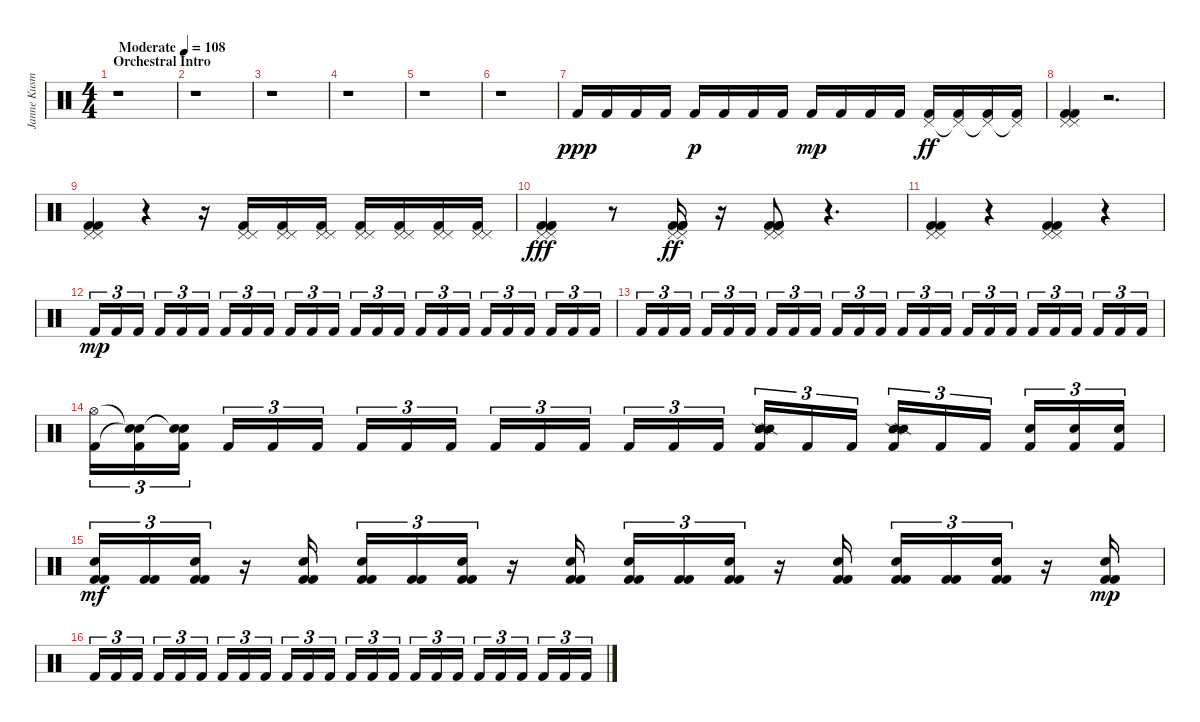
\track ("Janne Kusmin" "Janne Kusm") {instrument percussion}
\staff {score}
\articulation defaults
\ts (4 4)
\section ("" "Orchestral Intro")
\tempo (108 "Moderate")
\clef neutral
\ks c
r.1{dy ppp} |
r.1 |
r.1 |
r.1 |
r.1 |
r.1 |
"Kick (hit) 2".16 "Kick (hit) 2".16 "Kick (hit) 2".16 "Kick (hit) 2".16 "Kick (hit) 2".16{dy p} "Kick (hit) 2".16 "Kick (hit) 2".16 "Kick (hit) 2".16 "Kick (hit) 2".16{dy mp} "Kick (hit) 2".16 "Kick (hit) 2".16 "Kick (hit) 2".16 ("Pedal Hi-Hat (hit)" "Kick (hit) 2").16{dy ff} ("Pedal Hi-Hat (hit)"{t} "Kick (hit) 2").16 ("Pedal Hi-Hat (hit)"{t} "Kick (hit) 2").16 ("Pedal Hi-Hat (hit)"{t} "Kick (hit) 2").16 |
("Pedal Hi-Hat (hit)" "Pedal Hi-Hat (hit)" "Kick (hit) 2" "Kick (hit) 2").4 r.2{d} |
("Pedal Hi-Hat (hit)" "Pedal Hi-Hat (hit)" "Kick (hit) 2" "Kick (hit) 2").4 r.4 r.16 ("Pedal Hi-Hat (hit)" "Pedal Hi-Hat (hit)" "Kick (hit) 2").16 ("Pedal Hi-Hat (hit)" "Pedal Hi-Hat (hit)" "Kick (hit) 2").16 ("Pedal Hi-Hat (hit)" "Pedal Hi-Hat (hit)" "Kick (hit) 2").16 ("Pedal Hi-Hat (hit)" "Pedal Hi-Hat (hit)" "Kick (hit) 2").16 ("Pedal Hi-Hat (hit)" "Pedal Hi-Hat (hit)" "Kick (hit) 2").16 ("Pedal Hi-Hat (hit)" "Pedal Hi-Hat (hit)" "Kick (hit) 2").16 ("Pedal Hi-Hat (hit)" "Pedal Hi-Hat (hit)" "Kick (hit) 2").16 |
("Pedal Hi-Hat (hit)" "Pedal Hi-Hat (hit)" "Kick (hit) 2" "Kick (hit) 2" "Kick (hit) 2").4{dy fff} r.8 ("Pedal Hi-Hat (hit)" "Pedal Hi-Hat (hit)" "Kick (hit) 2" "Kick (hit) 2" "Kick (hit) 2").16{dy ff} r.16 ("Pedal Hi-Hat (hit)" "Pedal Hi-Hat (hit)" "Kick (hit) 2" "Kick (hit) 2" "Kick (hit) 2").8 r.4{d} |
("Pedal Hi-Hat (hit)" "Pedal Hi-Hat (hit)" "Kick (hit) 2" "Kick (hit) 2").4 r.4 ("Pedal Hi-Hat (hit)" "Pedal Hi-Hat (hit)" "Kick (hit) 2" "Kick (hit) 2").4 r.4 |
"Kick (hit) 2".16{tu (3 2) dy mp} "Kick (hit) 2".16{tu (3 2)} "Kick (hit) 2".16{tu (3 2) beam splitsecondary} "Kick (hit) 2".16{tu (3 2)} "Kick (hit) 2".16{tu (3 2)} "Kick (hit) 2".16{tu (3 2)} "Kick (hit) 2".16{tu (3 2)} "Kick (hit) 2".16{tu (3 2)} "Kick (hit) 2".16{tu (3 2) beam splitsecondary} "Kick (hit) 2".16{tu (3 2)} "Kick (hit) 2".16{tu (3 2)} "Kick (hit) 2".16{tu (3 2)} "Kick (hit) 2".16{tu (3 2)} "Kick (hit) 2".16{tu (3 2)} "Kick (hit) 2".16{tu (3 2) beam splitsecondary} "Kick (hit) 2".16{tu (3 2)} "Kick (hit) 2".16{tu (3 2)} "Kick (hit) 2".16{tu (3 2)} "Kick (hit) 2".16{tu (3 2)} "Kick (hit) 2".16{tu (3 2)} "Kick (hit) 2".16{tu (3 2) beam splitsecondary} "Kick (hit) 2".16{tu (3 2)} "Kick (hit) 2".16{tu (3 2)} "Kick (hit) 2".16{tu (3 2)} |
"Kick (hit) 2".16{tu (3 2)} "Kick (hit) 2".16{tu (3 2)} "Kick (hit) 2".16{tu (3 2) beam splitsecondary} "Kick (hit) 2".16{tu (3 2)} "Kick (hit) 2".16{tu (3 2)} "Kick (hit) 2".16{tu (3 2)} "Kick (hit) 2".16{tu (3 2)} "Kick (hit) 2".16{tu (3 2)} "Kick (hit) 2".16{tu (3 2) beam splitsecondary} "Kick (hit) 2".16{tu (3 2)} "Kick (hit) 2".16{tu (3 2)} "Kick (hit) 2".16{tu (3 2)} "Kick (hit) 2".16{tu (3 2)} "Kick (hit) 2".16{tu (3 2)} "Kick (hit) 2".16{tu (3 2) beam splitsecondary} "Kick (hit) 2".16{tu (3 2)} "Kick (hit) 2".16{tu (3 2)} "Kick (hit) 2".16{tu (3 2)} "Kick (hit) 2".16{tu (3 2)} "Kick (hit) 2".16{tu (3 2)} "Kick (hit) 2".16{tu (3 2) beam splitsecondary} "Kick (hit) 2".16{tu (3 2)} "Kick (hit) 2".16{tu (3 2)} "Kick (hit) 2".16{tu (3 2)} |
("Hi-Hat (open)" "Kick (hit) 2").16{tu (3 2)} ("Snare (hit)"{t} "Snare (hit)"{t} "Kick (hit) 2").16{tu (3 2)} ("Snare (hit)"{t} "Snare (hit)"{t} "Kick (hit) 2").16{tu (3 2) beam splitsecondary} "Kick (hit) 2".16{tu (3 2)} "Kick (hit) 2".16{tu (3 2)} "Kick (hit) 2".16{tu (3 2)} "Kick (hit) 2".16{tu (3 2)} "Kick (hit) 2".16{tu (3 2)} "Kick (hit) 2".16{tu (3 2) beam splitsecondary} "Kick (hit) 2".16{tu (3 2)} "Kick (hit) 2".16{tu (3 2)} "Kick (hit) 2".16{tu (3 2)} "Kick (hit) 2".16{tu (3 2)} "Kick (hit) 2".16{tu (3 2)} "Kick (hit) 2".16{tu (3 2) beam splitsecondary} ("Snare (side stick) 2" "Snare (side stick) 2" "Kick (hit) 2").16{tu (3 2)} "Kick (hit) 2".16{tu (3 2)} "Kick (hit) 2".16{tu (3 2)} ("Snare (side stick) 2" "Snare (side stick) 2" "Kick (hit) 2").16{tu (3 2)} "Kick (hit) 2".16{tu (3 2)} "Kick (hit) 2".16{tu (3 2) beam splitsecondary} ("Snare (hit) 2" "Kick (hit) 2").16{tu (3 2)} ("Snare (hit) 2" "Kick (hit) 2").16{tu (3 2)} ("Snare (hit) 2" "Kick (hit) 2").16{tu (3 2)} |
("Snare (hit) 2" "Kick (hit) 2" "Kick (hit) 2").16{tu (3 2) dy mf} ("Kick (hit) 2" "Kick (hit) 2").16{tu (3 2)} ("Snare (hit) 2" "Kick (hit) 2" "Kick (hit) 2").16{tu (3 2)} r.16 ("Snare (hit) 2" "Kick (hit) 2" "Kick (hit) 2").16 ("Snare (hit) 2" "Kick (hit) 2" "Kick (hit) 2").16{tu (3 2)} ("Kick (hit) 2" "Kick (hit) 2").16{tu (3 2)} ("Snare (hit) 2" "Kick (hit) 2" "Kick (hit) 2").16{tu (3 2)} r.16 ("Snare (hit) 2" "Kick (hit) 2" "Kick (hit) 2").16 ("Snare (hit) 2" "Kick (hit) 2" "Kick (hit) 2").16{tu (3 2)} ("Kick (hit) 2" "Kick (hit) 2").16{tu (3 2)} ("Snare (hit) 2" "Kick (hit) 2" "Kick (hit) 2").16{tu (3 2)} r.16 ("Snare (hit) 2" "Kick (hit) 2" "Kick (hit) 2").16 ("Snare (hit) 2" "Kick (hit) 2" "Kick (hit) 2").16{tu (3 2)} ("Kick (hit) 2" "Kick (hit) 2").16{tu (3 2)} ("Snare (hit) 2" "Kick (hit) 2" "Kick (hit) 2").16{tu (3 2)} r.16 ("Snare (hit) 2" "Kick (hit) 2" "Kick (hit) 2").16{dy mp} |
"Kick (hit) 2".16{tu (3 2)} "Kick (hit) 2".16{tu (3 2)} "Kick (hit) 2".16{tu (3 2) beam splitsecondary} "Kick (hit) 2".16{tu (3 2)} "Kick (hit) 2".16{tu (3 2)} "Kick (hit) 2".16{tu (3 2)} "Kick (hit) 2".16{tu (3 2)} "Kick (hit) 2".16{tu (3 2)} "Kick (hit) 2".16{tu (3 2) beam splitsecondary} "Kick (hit) 2".16{tu (3 2)} "Kick (hit) 2".16{tu (3 2)} "Kick (hit) 2".16{tu (3 2)} "Kick (hit) 2".16{tu (3 2)} "Kick (hit) 2".16{tu (3 2)} "Kick (hit) 2".16{tu (3 2) beam splitsecondary} "Kick (hit) 2".16{tu (3 2)} "Kick (hit) 2".16{tu (3 2)} "Kick (hit) 2".16{tu (3 2)} "Kick (hit) 2".16{tu (3 2)} "Kick (hit) 2".16{tu (3 2)} "Kick (hit) 2".16{tu (3 2) beam splitsecondary} "Kick (hit) 2".16{tu (3 2)} "Kick (hit) 2".16{tu (3 2)} "Kick (hit) 2".16{tu (3 2)}
